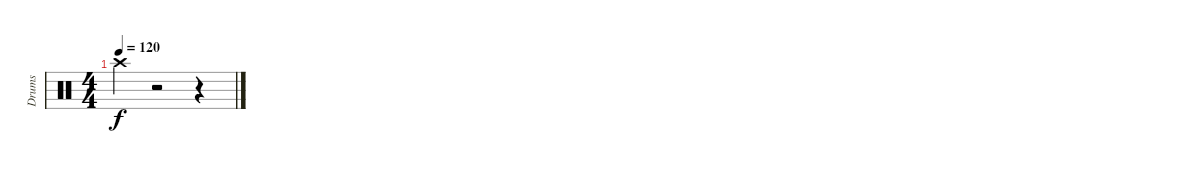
\track ("Drums" "Drums") {instrument percussion}
\staff {score}
\articulation defaults
\ts (4 4)
\tempo 120
\clef neutral
\ks c "Crash high (hit)".4{dy f}
r.2 r.4
